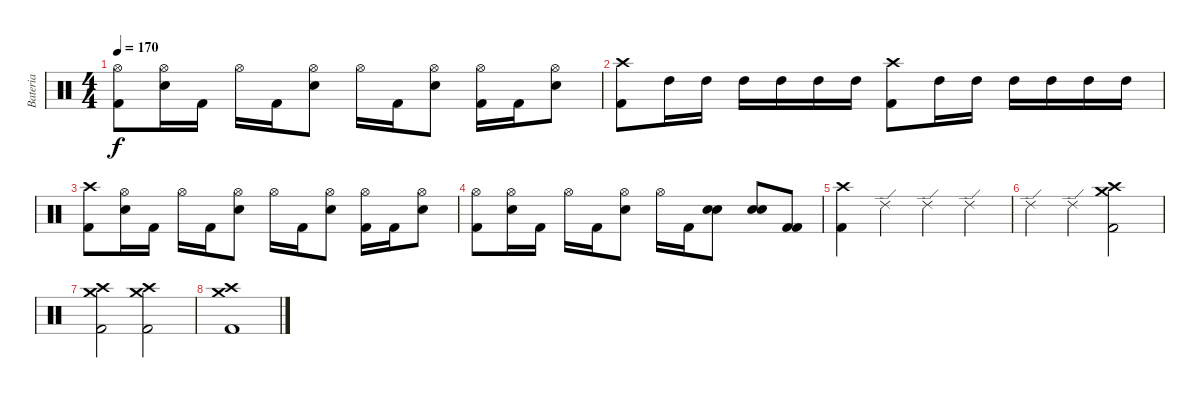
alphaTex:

\track ("Bateria" "Bateria") {instrument percussion}
\staff {score}
\articulation defaults
\ts (4 4)
\tempo 170
\clef neutral
\ks c
("Hi-Hat (open)" "Kick (hit) 2").8{dy f} ("Hi-Hat (open)" "Snare (hit) 2").16 "Kick (hit) 2".16 "Hi-Hat (open)".16 "Kick (hit) 2".16 ("Hi-Hat (open)" "Snare (hit) 2").8 "Hi-Hat (open)".16 "Kick (hit) 2".16 ("Hi-Hat (open)" "Snare (hit) 2").8 ("Hi-Hat (open)" "Kick (hit) 2").16 "Kick (hit) 2".16 ("Hi-Hat (open)" "Snare (hit) 2").8 |
("Crash high (hit)" "Kick (hit) 2").8 "High Tom (hit)".16 "High Tom (hit)".16 "High Tom (hit)".16 "High Tom (hit)".16 "High Tom (hit)".16 "High Tom (hit)".16 ("Crash high (hit)" "Kick (hit) 2").8 "High Tom (hit)".16 "High Tom (hit)".16 "High Tom (hit)".16 "High Tom (hit)".16 "High Tom (hit)".16 "High Tom (hit)".16 |
("Crash high (hit)" "Kick (hit) 2").8 ("Hi-Hat (open)" "Snare (hit) 2").16 "Kick (hit) 2".16 "Hi-Hat (open)".16 "Kick (hit) 2".16 ("Hi-Hat (open)" "Snare (hit) 2").8 "Hi-Hat (open)".16 "Kick (hit) 2".16 ("Hi-Hat (open)" "Snare (hit) 2").8 ("Hi-Hat (open)" "Kick (hit) 2").16 "Kick (hit) 2".16 ("Hi-Hat (open)" "Snare (hit) 2").8 |
("Hi-Hat (open)" "Kick (hit) 2").8 ("Hi-Hat (open)" "Snare (hit) 2").16 "Kick (hit) 2".16 "Hi-Hat (open)".16 "Kick (hit) 2".16 ("Hi-Hat (open)" "Snare (hit) 2").8 "Hi-Hat (open)".16 "Kick (hit) 2".16 ("Snare (hit) 2" "Snare (hit) 2").8 ("Snare (hit) 2" "Snare (hit) 2").8 ("Kick (hit) 2" "Kick (hit) 2").8 |
("Crash high (hit)" "Kick (hit) 2").4 "Ride (edge) 2".4 "Ride (edge) 2".4 "Ride (edge) 2".4 |
"Ride (edge) 2".4 "Ride (edge) 2".4 ("Crash medium (hit)" "Crash high (hit)" "Kick (hit) 2").2 |
("Crash medium (hit)" "Crash high (hit)" "Kick (hit) 2").2 ("Crash medium (hit)" "Crash high (hit)" "Kick (hit) 2").2 |
("Crash medium (hit)" "Crash high (hit)" "Kick (hit) 2").1
